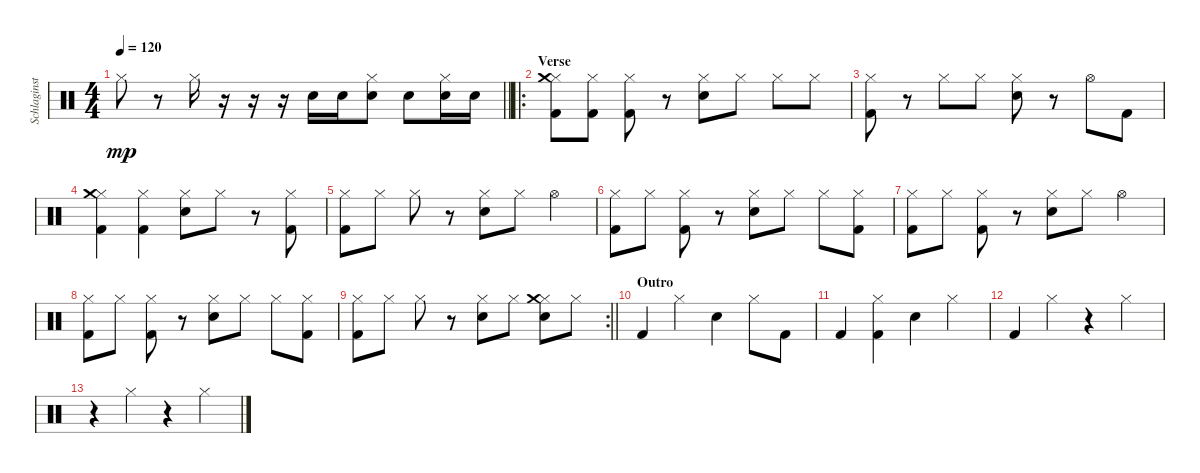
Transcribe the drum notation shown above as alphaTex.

\track ("Schlaginstrumente - Auswahl" "Schlaginst") {instrument percussion}
\staff {score}
\articulation defaults
\ts (4 4)
\tempo 120
\clef neutral
\barLineRight lightlight
\ks c "Hi-Hat (closed)".8{dy mp}
r.8 "Hi-Hat (closed)".16 r.16 r.16 r.16 "Electric Snare (hit)".16 "Electric Snare (hit)".16 ("Hi-Hat (closed)" "Electric Snare (hit)").8 "Electric Snare (hit)".8 ("Hi-Hat (closed)" "Electric Snare (hit)").16 "Electric Snare (hit)".16 |
\ro
\section ("" "Verse")
("Hi-Hat (closed)" "Crash medium (hit)" "Kick (hit) 2").8 ("Hi-Hat (closed)" "Kick (hit) 2").8 ("Hi-Hat (closed)" "Kick (hit) 2").8 r.8 ("Hi-Hat (closed)" "Electric Snare (hit)").8 "Hi-Hat (closed)".8 "Hi-Hat (closed)".8 "Hi-Hat (closed)".8 |
("Hi-Hat (closed)" "Kick (hit) 2").8 r.8 "Hi-Hat (closed)".8 "Hi-Hat (closed)".8 ("Hi-Hat (closed)" "Electric Snare (hit)").8 r.8 "Hi-Hat (open)".8 "Kick (hit) 2".8 |
("Hi-Hat (closed)" "Crash medium (hit)" "Kick (hit) 2").4 ("Hi-Hat (closed)" "Kick (hit) 2").4 ("Hi-Hat (closed)" "Electric Snare (hit)").8 "Hi-Hat (closed)".8 r.8 ("Hi-Hat (closed)" "Kick (hit) 2").8 |
("Hi-Hat (closed)" "Kick (hit) 2").8 "Hi-Hat (closed)".8 "Hi-Hat (closed)".8 r.8 ("Hi-Hat (closed)" "Electric Snare (hit)").8 "Hi-Hat (closed)".8 "Hi-Hat (open)".4 |
("Hi-Hat (closed)" "Kick (hit) 2").8 "Hi-Hat (closed)".8 ("Hi-Hat (closed)" "Kick (hit) 2").8 r.8 ("Hi-Hat (closed)" "Electric Snare (hit)").8 "Hi-Hat (closed)".8 "Hi-Hat (closed)".8 ("Hi-Hat (closed)" "Kick (hit) 2").8 |
("Hi-Hat (closed)" "Kick (hit) 2").8 "Hi-Hat (closed)".8 ("Hi-Hat (closed)" "Kick (hit) 2").8 r.8 ("Hi-Hat (closed)" "Electric Snare (hit)").8 "Hi-Hat (closed)".8 "Hi-Hat (open)".4 |
("Hi-Hat (closed)" "Kick (hit) 2").8 "Hi-Hat (closed)".8 ("Hi-Hat (closed)" "Kick (hit) 2").8 r.8 ("Hi-Hat (closed)" "Electric Snare (hit)").8 "Hi-Hat (closed)".8 "Hi-Hat (closed)".8 ("Hi-Hat (closed)" "Kick (hit) 2").8 |
\rc 2
\barLineRight lightlight
("Hi-Hat (closed)" "Kick (hit) 2").8 "Hi-Hat (closed)".8 "Hi-Hat (closed)".8 r.8 ("Hi-Hat (closed)" "Electric Snare (hit)").8 "Hi-Hat (closed)".8 ("Hi-Hat (closed)" "Electric Snare (hit)" "Crash medium (hit)").8 "Hi-Hat (closed)".8 |
\section ("" "Outro")
"Kick (hit) 2".4 "Hi-Hat (closed)".4 "Electric Snare (hit)".4 "Hi-Hat (closed)".8 "Kick (hit) 2".8 |
"Kick (hit) 2".4 ("Hi-Hat (closed)" "Kick (hit) 2").4 "Electric Snare (hit)".4 "Hi-Hat (closed)".4 |
"Kick (hit) 2".4 "Hi-Hat (closed)".4 r.4 "Hi-Hat (closed)".4 |
r.4 "Hi-Hat (closed)".4 r.4 "Hi-Hat (closed)".4
